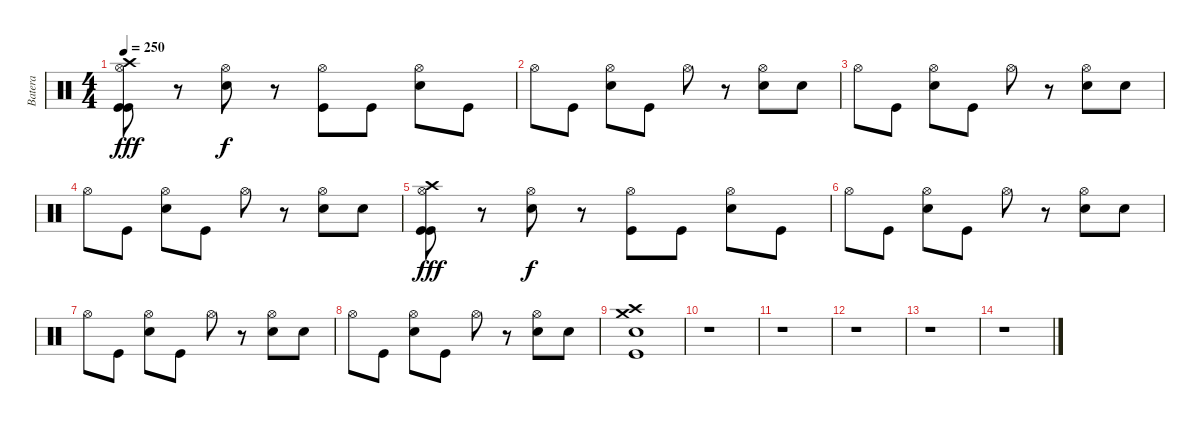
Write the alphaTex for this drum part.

\track ("Batera" "Batera") {instrument percussion}
\staff {score}
\articulation defaults
\ts (4 4)
\tempo 250
\clef neutral
\ks c
("Hi-Hat (open)" "Crash high (hit)" "Kick (hit)" "Kick (hit)").8{dy fff} r.8 ("Hi-Hat (open)" "Electric Snare (hit)").8{dy f} r.8 ("Hi-Hat (open)" "Kick (hit)").8 "Kick (hit)".8 ("Hi-Hat (open)" "Electric Snare (hit)").8 "Kick (hit)".8 |
"Hi-Hat (open)".8 "Kick (hit)".8 ("Hi-Hat (open)" "Electric Snare (hit)").8 "Kick (hit)".8 "Hi-Hat (open)".8 r.8 ("Hi-Hat (open)" "Electric Snare (hit)").8 "Electric Snare (hit)".8 |
"Hi-Hat (open)".8 "Kick (hit)".8 ("Hi-Hat (open)" "Electric Snare (hit)").8 "Kick (hit)".8 "Hi-Hat (open)".8 r.8 ("Hi-Hat (open)" "Electric Snare (hit)").8 "Electric Snare (hit)".8 |
"Hi-Hat (open)".8 "Kick (hit)".8 ("Hi-Hat (open)" "Electric Snare (hit)").8 "Kick (hit)".8 "Hi-Hat (open)".8 r.8 ("Hi-Hat (open)" "Electric Snare (hit)").8 "Electric Snare (hit)".8 |
("Hi-Hat (open)" "Crash high (hit)" "Kick (hit)" "Kick (hit)").8{dy fff} r.8 ("Hi-Hat (open)" "Electric Snare (hit)").8{dy f} r.8 ("Hi-Hat (open)" "Kick (hit)").8 "Kick (hit)".8 ("Hi-Hat (open)" "Electric Snare (hit)").8 "Kick (hit)".8 |
"Hi-Hat (open)".8 "Kick (hit)".8 ("Hi-Hat (open)" "Electric Snare (hit)").8 "Kick (hit)".8 "Hi-Hat (open)".8 r.8 ("Hi-Hat (open)" "Electric Snare (hit)").8 "Electric Snare (hit)".8 |
"Hi-Hat (open)".8 "Kick (hit)".8 ("Hi-Hat (open)" "Electric Snare (hit)").8 "Kick (hit)".8 "Hi-Hat (open)".8 r.8 ("Hi-Hat (open)" "Electric Snare (hit)").8 "Electric Snare (hit)".8 |
"Hi-Hat (open)".8 "Kick (hit)".8 ("Hi-Hat (open)" "Electric Snare (hit)").8 "Kick (hit)".8 "Hi-Hat (open)".8 r.8 ("Hi-Hat (open)" "Electric Snare (hit)").8 "Electric Snare (hit)".8 |
("Crash medium (hit)" "Crash high (hit)" "Electric Snare (hit)" "Kick (hit)").1 |
r.1 |
r.1 |
r.1 |
r.1 |
r.1
